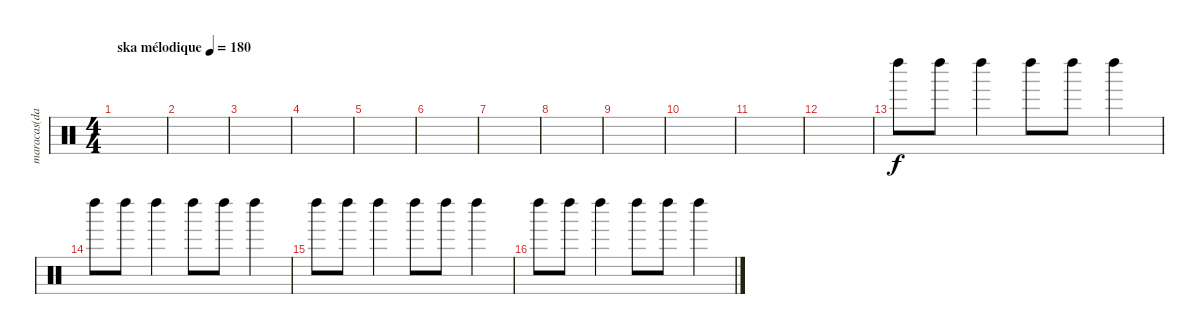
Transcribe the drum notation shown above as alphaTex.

\track ("maracas(dave)" "maracas(da") {instrument percussion}
\staff {score}
\articulation defaults
\ts (4 4)
\tempo (180 "ska mélodique")
\clef neutral
\ks c
|
|
|
|
|
|
|
|
|
|
|
|
"Left Maraca (hit)".8 "Left Maraca (hit)".8 "Left Maraca (hit)".4 "Left Maraca (hit)".8 "Left Maraca (hit)".8 "Left Maraca (hit)".4 |
"Left Maraca (hit)".8 "Left Maraca (hit)".8 "Left Maraca (hit)".4 "Left Maraca (hit)".8 "Left Maraca (hit)".8 "Left Maraca (hit)".4 |
"Left Maraca (hit)".8 "Left Maraca (hit)".8 "Left Maraca (hit)".4 "Left Maraca (hit)".8 "Left Maraca (hit)".8 "Left Maraca (hit)".4 |
"Left Maraca (hit)".8 "Left Maraca (hit)".8 "Left Maraca (hit)".4 "Left Maraca (hit)".8 "Left Maraca (hit)".8 "Left Maraca (hit)".4
